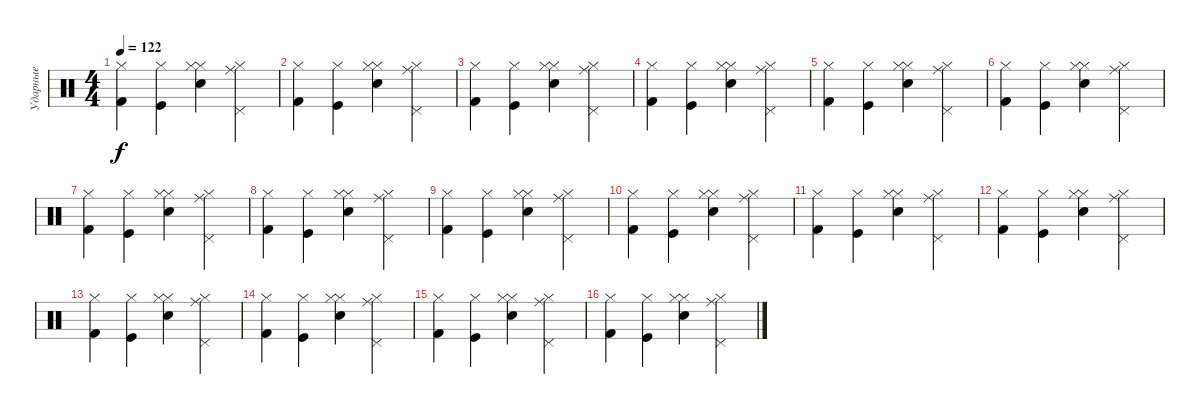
\track ("Ударные" "Ударные") {instrument percussion}
\staff {score}
\articulation defaults
\ts (4 4)
\tempo 122
\clef neutral
\ks c
("Hi-Hat (closed)" "Kick (hit) 2").4{dy f} ("Hi-Hat (closed)" "Kick (hit)").4 ("Hi-Hat (closed)" "Hi-Hat (closed)" "Electric Snare (hit)").4 ("Hi-Hat (closed)" "Ride (middle)" "Pedal Hi-Hat (hit)").4 |
("Hi-Hat (closed)" "Kick (hit) 2").4 ("Hi-Hat (closed)" "Kick (hit)").4 ("Hi-Hat (closed)" "Hi-Hat (closed)" "Electric Snare (hit)").4 ("Hi-Hat (closed)" "Ride (middle)" "Pedal Hi-Hat (hit)").4 |
("Hi-Hat (closed)" "Kick (hit) 2").4 ("Hi-Hat (closed)" "Kick (hit)").4 ("Hi-Hat (closed)" "Hi-Hat (closed)" "Electric Snare (hit)").4 ("Hi-Hat (closed)" "Ride (middle)" "Pedal Hi-Hat (hit)").4 |
("Hi-Hat (closed)" "Kick (hit) 2").4 ("Hi-Hat (closed)" "Kick (hit)").4 ("Hi-Hat (closed)" "Hi-Hat (closed)" "Electric Snare (hit)").4 ("Hi-Hat (closed)" "Ride (middle)" "Pedal Hi-Hat (hit)").4 |
("Hi-Hat (closed)" "Kick (hit) 2").4 ("Hi-Hat (closed)" "Kick (hit)").4 ("Hi-Hat (closed)" "Hi-Hat (closed)" "Electric Snare (hit)").4 ("Hi-Hat (closed)" "Ride (middle)" "Pedal Hi-Hat (hit)").4 |
("Hi-Hat (closed)" "Kick (hit) 2").4 ("Hi-Hat (closed)" "Kick (hit)").4 ("Hi-Hat (closed)" "Hi-Hat (closed)" "Electric Snare (hit)").4 ("Hi-Hat (closed)" "Ride (middle)" "Pedal Hi-Hat (hit)").4 |
("Hi-Hat (closed)" "Kick (hit) 2").4 ("Hi-Hat (closed)" "Kick (hit)").4 ("Hi-Hat (closed)" "Hi-Hat (closed)" "Electric Snare (hit)").4 ("Hi-Hat (closed)" "Ride (middle)" "Pedal Hi-Hat (hit)").4 |
("Hi-Hat (closed)" "Kick (hit) 2").4 ("Hi-Hat (closed)" "Kick (hit)").4 ("Hi-Hat (closed)" "Hi-Hat (closed)" "Electric Snare (hit)").4 ("Hi-Hat (closed)" "Ride (middle)" "Pedal Hi-Hat (hit)").4 |
("Hi-Hat (closed)" "Kick (hit) 2").4 ("Hi-Hat (closed)" "Kick (hit)").4 ("Hi-Hat (closed)" "Hi-Hat (closed)" "Electric Snare (hit)").4 ("Hi-Hat (closed)" "Ride (middle)" "Pedal Hi-Hat (hit)").4 |
("Hi-Hat (closed)" "Kick (hit) 2").4 ("Hi-Hat (closed)" "Kick (hit)").4 ("Hi-Hat (closed)" "Hi-Hat (closed)" "Electric Snare (hit)").4 ("Hi-Hat (closed)" "Ride (middle)" "Pedal Hi-Hat (hit)").4 |
("Hi-Hat (closed)" "Kick (hit) 2").4 ("Hi-Hat (closed)" "Kick (hit)").4 ("Hi-Hat (closed)" "Hi-Hat (closed)" "Electric Snare (hit)").4 ("Hi-Hat (closed)" "Ride (middle)" "Pedal Hi-Hat (hit)").4 |
("Hi-Hat (closed)" "Kick (hit) 2").4 ("Hi-Hat (closed)" "Kick (hit)").4 ("Hi-Hat (closed)" "Hi-Hat (closed)" "Electric Snare (hit)").4 ("Hi-Hat (closed)" "Ride (middle)" "Pedal Hi-Hat (hit)").4 |
("Hi-Hat (closed)" "Kick (hit) 2").4 ("Hi-Hat (closed)" "Kick (hit)").4 ("Hi-Hat (closed)" "Hi-Hat (closed)" "Electric Snare (hit)").4 ("Hi-Hat (closed)" "Ride (middle)" "Pedal Hi-Hat (hit)").4 |
("Hi-Hat (closed)" "Kick (hit) 2").4 ("Hi-Hat (closed)" "Kick (hit)").4 ("Hi-Hat (closed)" "Hi-Hat (closed)" "Electric Snare (hit)").4 ("Hi-Hat (closed)" "Ride (middle)" "Pedal Hi-Hat (hit)").4 |
("Hi-Hat (closed)" "Kick (hit) 2").4 ("Hi-Hat (closed)" "Kick (hit)").4 ("Hi-Hat (closed)" "Hi-Hat (closed)" "Electric Snare (hit)").4 ("Hi-Hat (closed)" "Ride (middle)" "Pedal Hi-Hat (hit)").4 |
("Hi-Hat (closed)" "Kick (hit) 2").4 ("Hi-Hat (closed)" "Kick (hit)").4 ("Hi-Hat (closed)" "Hi-Hat (closed)" "Electric Snare (hit)").4 ("Hi-Hat (closed)" "Ride (middle)" "Pedal Hi-Hat (hit)").4
